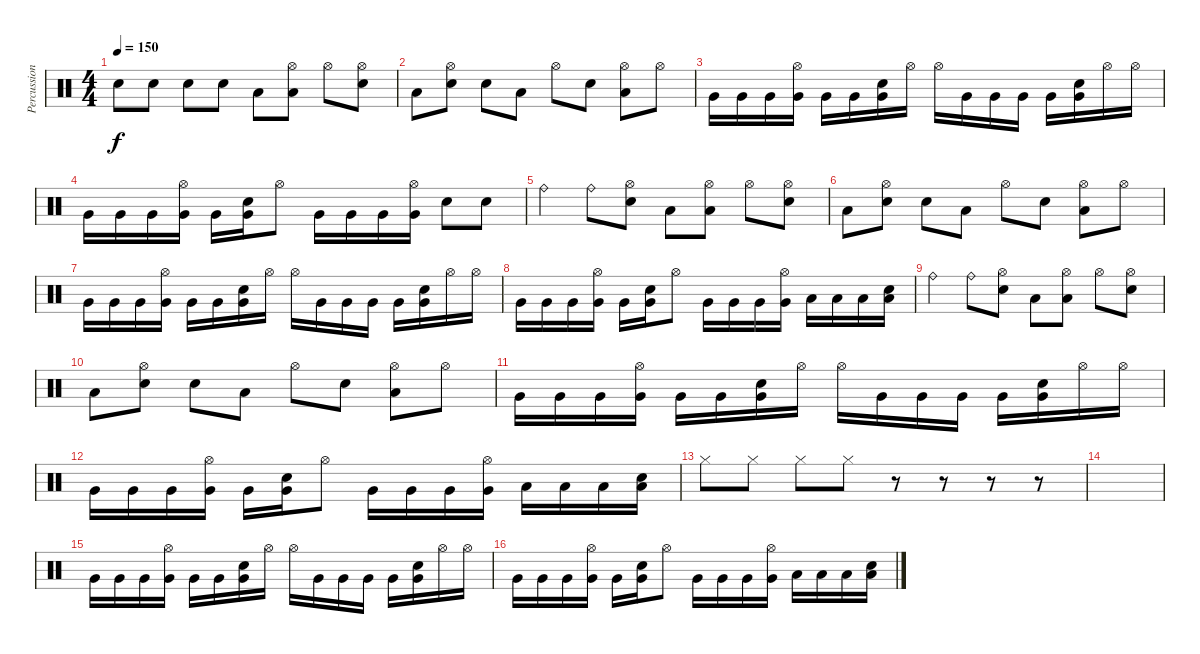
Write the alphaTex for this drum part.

\track ("Percussion" "Percussion") {instrument percussion}
\staff {score}
\articulation defaults
\ts (4 4)
\tempo 150
\clef neutral
\ks c "Electric Snare (hit)".8{dy f} "Electric Snare (hit)".8 "Electric Snare (hit)".8 "Electric Snare (hit)".8 "Low Tom (hit)".8
("Low Tom (hit)" "Hi-Hat (open)").8 "Hi-Hat (open)".8 ("Electric Snare (hit)" "Hi-Hat (open)").8 |
"Low Tom (hit)".8 ("Electric Snare (hit)" "Hi-Hat (open)").8 "Electric Snare (hit)".8 "Low Tom (hit)".8 "Hi-Hat (open)".8 "Electric Snare (hit)".8 ("Hi-Hat (open)" "Low Tom (hit)").8 "Hi-Hat (open)".8 |
"Very Low Tom (hit)".16 "Very Low Tom (hit)".16 "Very Low Tom (hit)".16 ("Very Low Tom (hit)" "Hi-Hat (open)").16 "Very Low Tom (hit)".16 "Very Low Tom (hit)".16 ("Very Low Tom (hit)" "Electric Snare (hit)").16 "Hi-Hat (open)".16 "Hi-Hat (open)".16 "Very Low Tom (hit)".16 "Very Low Tom (hit)".16 "Very Low Tom (hit)".16 "Very Low Tom (hit)".16 ("Very Low Tom (hit)" "Electric Snare (hit)").16 "Hi-Hat (open)".16 "Hi-Hat (open)".16 |
"Very Low Tom (hit)".16 "Very Low Tom (hit)".16 "Very Low Tom (hit)".16 ("Very Low Tom (hit)" "Hi-Hat (open)").16 "Very Low Tom (hit)".16 ("Very Low Tom (hit)" "Electric Snare (hit)").16 "Hi-Hat (open)".8 "Very Low Tom (hit)".16 "Very Low Tom (hit)".16 "Very Low Tom (hit)".16 ("Very Low Tom (hit)" "Hi-Hat (open)").16 "Electric Snare (hit)".8 "Electric Snare (hit)".8 |
"Ride (bell)".4 "Ride (bell)".8 ("Electric Snare (hit)" "Hi-Hat (open)").8 "Low Tom (hit)".8 ("Low Tom (hit)" "Hi-Hat (open)").8 "Hi-Hat (open)".8 ("Electric Snare (hit)" "Hi-Hat (open)").8 |
"Low Tom (hit)".8 ("Electric Snare (hit)" "Hi-Hat (open)").8 "Electric Snare (hit)".8 "Low Tom (hit)".8 "Hi-Hat (open)".8 "Electric Snare (hit)".8 ("Hi-Hat (open)" "Low Tom (hit)").8 "Hi-Hat (open)".8 |
"Very Low Tom (hit)".16 "Very Low Tom (hit)".16 "Very Low Tom (hit)".16 ("Very Low Tom (hit)" "Hi-Hat (open)").16 "Very Low Tom (hit)".16 "Very Low Tom (hit)".16 ("Very Low Tom (hit)" "Electric Snare (hit)").16 "Hi-Hat (open)".16 "Hi-Hat (open)".16 "Very Low Tom (hit)".16 "Very Low Tom (hit)".16 "Very Low Tom (hit)".16 "Very Low Tom (hit)".16 ("Very Low Tom (hit)" "Electric Snare (hit)").16 "Hi-Hat (open)".16 "Hi-Hat (open)".16 |
"Very Low Tom (hit)".16 "Very Low Tom (hit)".16 "Very Low Tom (hit)".16 ("Very Low Tom (hit)" "Hi-Hat (open)").16 "Very Low Tom (hit)".16 ("Very Low Tom (hit)" "Electric Snare (hit)").16 "Hi-Hat (open)".8 "Very Low Tom (hit)".16 "Very Low Tom (hit)".16 "Very Low Tom (hit)".16 ("Very Low Tom (hit)" "Hi-Hat (open)").16 "Low Tom (hit)".16 "Low Tom (hit)".16 "Low Tom (hit)".16 ("Low Tom (hit)" "Electric Snare (hit)").16 |
"Ride (bell)".4 "Ride (bell)".8 ("Electric Snare (hit)" "Hi-Hat (open)").8 "Low Tom (hit)".8 ("Low Tom (hit)" "Hi-Hat (open)").8 "Hi-Hat (open)".8 ("Electric Snare (hit)" "Hi-Hat (open)").8 |
"Low Tom (hit)".8 ("Electric Snare (hit)" "Hi-Hat (open)").8 "Electric Snare (hit)".8 "Low Tom (hit)".8 "Hi-Hat (open)".8 "Electric Snare (hit)".8 ("Hi-Hat (open)" "Low Tom (hit)").8 "Hi-Hat (open)".8 |
"Very Low Tom (hit)".16 "Very Low Tom (hit)".16 "Very Low Tom (hit)".16 ("Very Low Tom (hit)" "Hi-Hat (open)").16 "Very Low Tom (hit)".16 "Very Low Tom (hit)".16 ("Very Low Tom (hit)" "Electric Snare (hit)").16 "Hi-Hat (open)".16 "Hi-Hat (open)".16 "Very Low Tom (hit)".16 "Very Low Tom (hit)".16 "Very Low Tom (hit)".16 "Very Low Tom (hit)".16 ("Very Low Tom (hit)" "Electric Snare (hit)").16 "Hi-Hat (open)".16 "Hi-Hat (open)".16 |
"Very Low Tom (hit)".16 "Very Low Tom (hit)".16 "Very Low Tom (hit)".16 ("Very Low Tom (hit)" "Hi-Hat (open)").16 "Very Low Tom (hit)".16 ("Very Low Tom (hit)" "Electric Snare (hit)").16 "Hi-Hat (open)".8 "Very Low Tom (hit)".16 "Very Low Tom (hit)".16 "Very Low Tom (hit)".16 ("Very Low Tom (hit)" "Hi-Hat (open)").16 "Low Tom (hit)".16 "Low Tom (hit)".16 "Low Tom (hit)".16 ("Low Tom (hit)" "Electric Snare (hit)").16 |
"Hi-Hat (closed)".8 "Hi-Hat (closed)".8 "Hi-Hat (closed)".8 "Hi-Hat (closed)".8 r.8 r.8 r.8 r.8 |
|
"Very Low Tom (hit)".16 "Very Low Tom (hit)".16 "Very Low Tom (hit)".16 ("Very Low Tom (hit)" "Hi-Hat (open)").16 "Very Low Tom (hit)".16 "Very Low Tom (hit)".16 ("Very Low Tom (hit)" "Electric Snare (hit)").16 "Hi-Hat (open)".16 "Hi-Hat (open)".16 "Very Low Tom (hit)".16 "Very Low Tom (hit)".16 "Very Low Tom (hit)".16 "Very Low Tom (hit)".16 ("Very Low Tom (hit)" "Electric Snare (hit)").16 "Hi-Hat (open)".16 "Hi-Hat (open)".16 |
"Very Low Tom (hit)".16 "Very Low Tom (hit)".16 "Very Low Tom (hit)".16 ("Very Low Tom (hit)" "Hi-Hat (open)").16 "Very Low Tom (hit)".16 ("Very Low Tom (hit)" "Electric Snare (hit)").16 "Hi-Hat (open)".8 "Very Low Tom (hit)".16 "Very Low Tom (hit)".16 "Very Low Tom (hit)".16 ("Very Low Tom (hit)" "Hi-Hat (open)").16 "Low Tom (hit)".16 "Low Tom (hit)".16 "Low Tom (hit)".16 ("Low Tom (hit)" "Electric Snare (hit)").16
